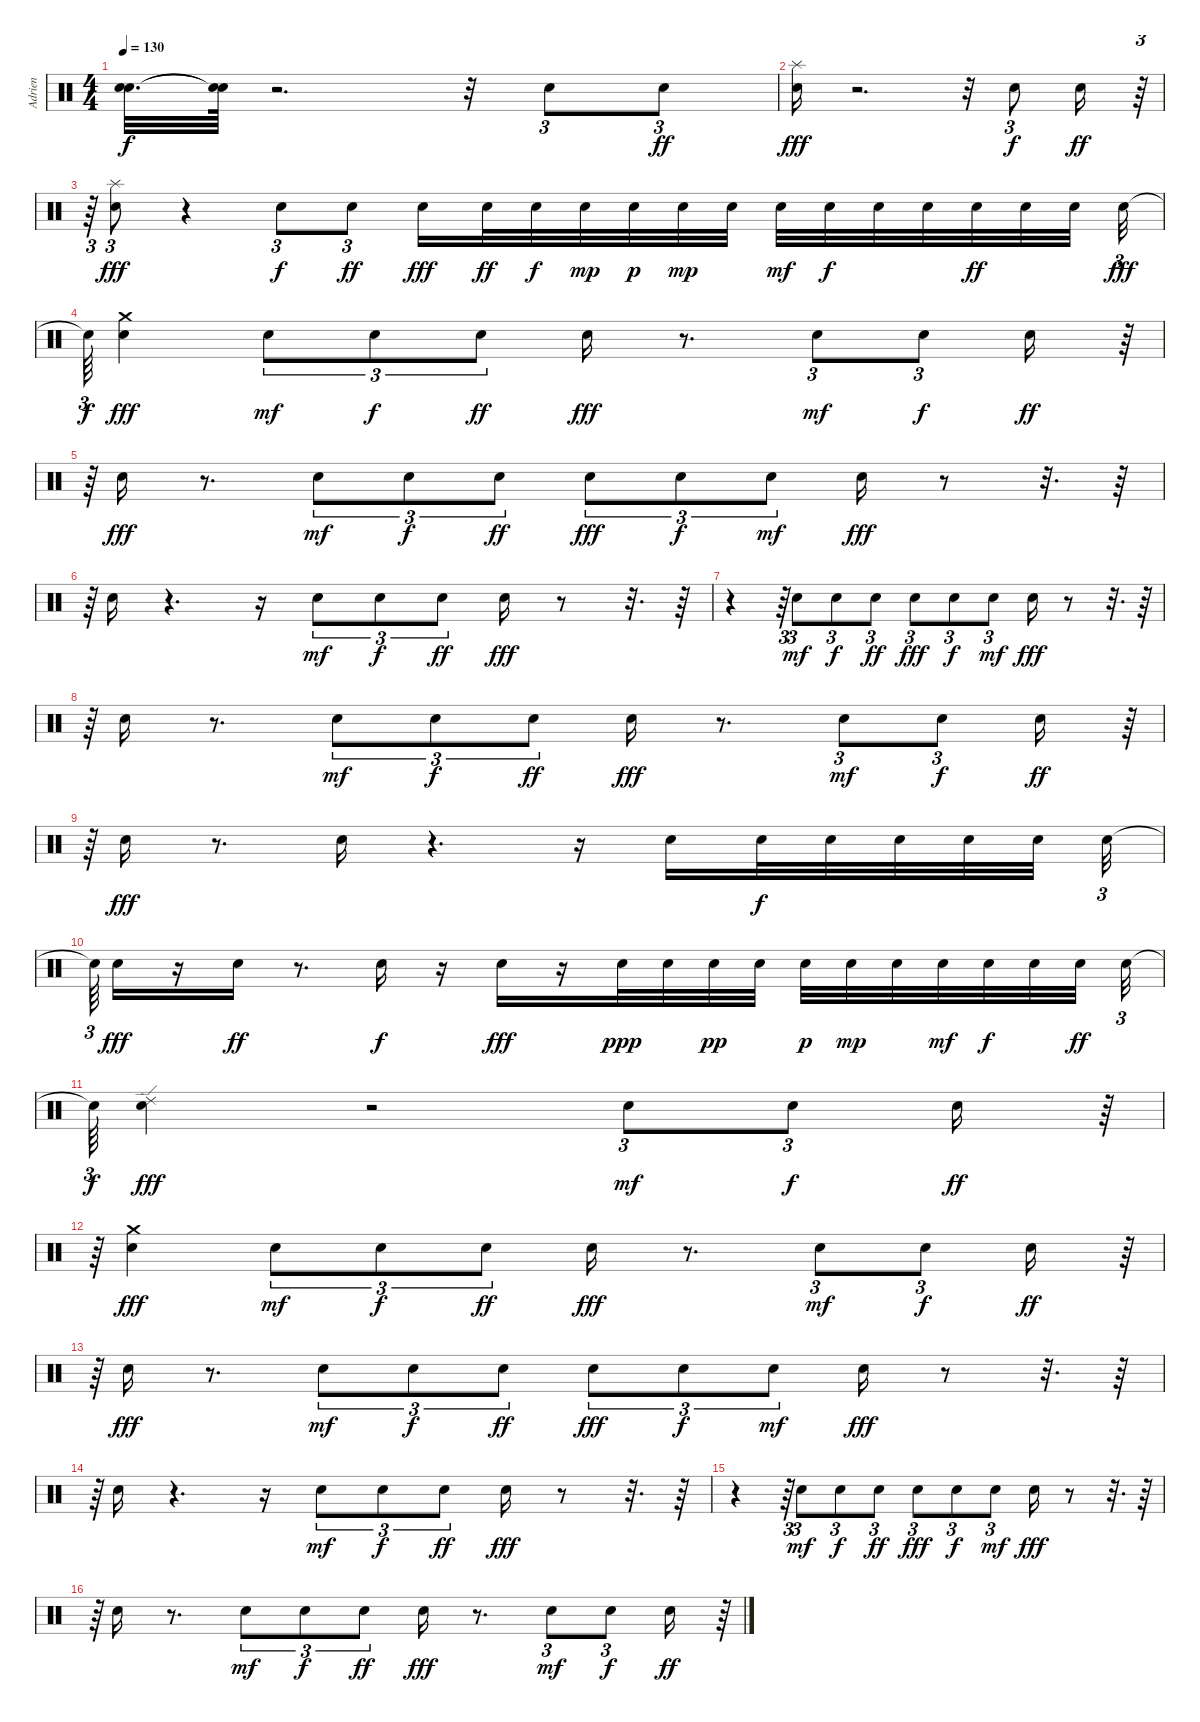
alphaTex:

\track ("Adrien" "Adrien") {instrument percussion}
\staff {score}
\articulation defaults
\ts (4 4)
\tempo 130
\clef neutral
\ks c
("Snare (hit)"{t} "Snare (hit)"{t}).32{d dy f} ("Snare (hit)"{t} "Snare (hit)"{t}).64 r.2{d} r.32 "Snare (hit) 2".8{tu (3 2)} "Snare (hit) 2".8{tu (3 2) dy ff} |
("Snare (hit) 2" "Splash (hit)").16{dy fff} r.2{d} r.32 "Snare (hit) 2".8{tu (3 2) dy f} "Snare (hit) 2".16{dy ff} r.64{tu (3 2)} |
r.64{tu (3 2)} ("Snare (hit) 2" "Splash (hit)").8{tu (3 2) dy fff} r.4 "Snare (hit) 2".8{tu (3 2) dy f} "Snare (hit) 2".8{tu (3 2) dy ff} "Snare (hit) 2".16{dy fff} "Snare (hit) 2".32{dy ff} "Snare (hit) 2".32{dy f} "Snare (hit) 2".32{dy mp} "Snare (hit) 2".32{dy p} "Snare (hit) 2".32{dy mp} "Snare (hit) 2".32 "Snare (hit) 2".32{dy mf} "Snare (hit) 2".32{dy f} "Snare (hit) 2".32 "Snare (hit) 2".32 "Snare (hit) 2".32{dy ff} "Snare (hit) 2".32 "Snare (hit) 2".32{beam splitsecondary} "Snare (hit) 2".32{tu (3 2) dy fff} |
"Snare (hit)"{t}.64{tu (3 2) dy f} ("Snare (hit) 2" "Crash medium (hit)").4{dy fff} "Snare (hit) 2".8{tu (3 2) dy mf} "Snare (hit) 2".8{tu (3 2) dy f} "Snare (hit) 2".8{tu (3 2) dy ff} "Snare (hit) 2".16{dy fff} r.8{d} "Snare (hit) 2".8{tu (3 2) dy mf} "Snare (hit) 2".8{tu (3 2) dy f} "Snare (hit) 2".16{dy ff} r.64{tu (3 2)} |
r.64{tu (3 2)} "Snare (hit) 2".16{dy fff} r.8{d} "Snare (hit) 2".8{tu (3 2) dy mf} "Snare (hit) 2".8{tu (3 2) dy f} "Snare (hit) 2".8{tu (3 2) dy ff} "Snare (hit) 2".8{tu (3 2) dy fff} "Snare (hit) 2".8{tu (3 2) dy f} "Snare (hit) 2".8{tu (3 2) dy mf} "Snare (hit) 2".16{dy fff} r.8 r.32{d} r.64 |
r.64{tu (3 2)} "Snare (hit) 2".16 r.4{d} r.16 "Snare (hit) 2".8{tu (3 2) dy mf} "Snare (hit) 2".8{tu (3 2) dy f} "Snare (hit) 2".8{tu (3 2) dy ff} "Snare (hit) 2".16{dy fff} r.8 r.32{d} r.64 |
r.4 r.64{tu (3 2)} "Snare (hit) 2".8{tu (3 2) dy mf} "Snare (hit) 2".8{tu (3 2) dy f} "Snare (hit) 2".8{tu (3 2) dy ff} "Snare (hit) 2".8{tu (3 2) dy fff} "Snare (hit) 2".8{tu (3 2) dy f} "Snare (hit) 2".8{tu (3 2) dy mf} "Snare (hit) 2".16{dy fff} r.8 r.32{d} r.64 |
r.64{tu (3 2)} "Snare (hit) 2".16 r.8{d} "Snare (hit) 2".8{tu (3 2) dy mf} "Snare (hit) 2".8{tu (3 2) dy f} "Snare (hit) 2".8{tu (3 2) dy ff} "Snare (hit) 2".16{dy fff} r.8{d} "Snare (hit) 2".8{tu (3 2) dy mf} "Snare (hit) 2".8{tu (3 2) dy f} "Snare (hit) 2".16{dy ff} r.64{tu (3 2)} |
r.64{tu (3 2)} "Snare (hit) 2".16{dy fff} r.8{d} "Snare (hit) 2".16 r.4{d} r.16 "Snare (hit) 2".16 "Snare (hit) 2".32{dy f} "Snare (hit) 2".32 "Snare (hit) 2".32 "Snare (hit) 2".32 "Snare (hit) 2".32{beam splitsecondary} "Snare (hit) 2".32{tu (3 2)} |
"Snare (hit)"{t}.64{tu (3 2)} "Snare (hit) 2".16{dy fff} r.16 "Snare (hit) 2".16{dy ff} r.8{d} "Snare (hit) 2".16{dy f} r.16 "Snare (hit) 2".16{dy fff} r.16 "Snare (hit) 2".32{dy ppp} "Snare (hit) 2".32 "Snare (hit) 2".32{dy pp} "Snare (hit) 2".32 "Snare (hit) 2".32{dy p} "Snare (hit) 2".32{dy mp} "Snare (hit) 2".32 "Snare (hit) 2".32{dy mf} "Snare (hit) 2".32{dy f} "Snare (hit) 2".32 "Snare (hit) 2".32{dy ff beam splitsecondary} "Snare (hit) 2".32{tu (3 2)} |
"Snare (hit)"{t}.64{tu (3 2) dy f} ("Snare (hit) 2" "Ride (edge) 2").4{dy fff} r.2 "Snare (hit) 2".8{tu (3 2) dy mf} "Snare (hit) 2".8{tu (3 2) dy f} "Snare (hit) 2".16{dy ff} r.64{tu (3 2)} |
r.64{tu (3 2)} ("Snare (hit) 2" "Crash medium (hit)").4{dy fff} "Snare (hit) 2".8{tu (3 2) dy mf} "Snare (hit) 2".8{tu (3 2) dy f} "Snare (hit) 2".8{tu (3 2) dy ff} "Snare (hit) 2".16{dy fff} r.8{d} "Snare (hit) 2".8{tu (3 2) dy mf} "Snare (hit) 2".8{tu (3 2) dy f} "Snare (hit) 2".16{dy ff} r.64{tu (3 2)} |
r.64{tu (3 2)} "Snare (hit) 2".16{dy fff} r.8{d} "Snare (hit) 2".8{tu (3 2) dy mf} "Snare (hit) 2".8{tu (3 2) dy f} "Snare (hit) 2".8{tu (3 2) dy ff} "Snare (hit) 2".8{tu (3 2) dy fff} "Snare (hit) 2".8{tu (3 2) dy f} "Snare (hit) 2".8{tu (3 2) dy mf} "Snare (hit) 2".16{dy fff} r.8 r.32{d} r.64 |
r.64{tu (3 2)} "Snare (hit) 2".16 r.4{d} r.16 "Snare (hit) 2".8{tu (3 2) dy mf} "Snare (hit) 2".8{tu (3 2) dy f} "Snare (hit) 2".8{tu (3 2) dy ff} "Snare (hit) 2".16{dy fff} r.8 r.32{d} r.64 |
r.4 r.64{tu (3 2)} "Snare (hit) 2".8{tu (3 2) dy mf} "Snare (hit) 2".8{tu (3 2) dy f} "Snare (hit) 2".8{tu (3 2) dy ff} "Snare (hit) 2".8{tu (3 2) dy fff} "Snare (hit) 2".8{tu (3 2) dy f} "Snare (hit) 2".8{tu (3 2) dy mf} "Snare (hit) 2".16{dy fff} r.8 r.32{d} r.64 |
r.64{tu (3 2)} "Snare (hit) 2".16 r.8{d} "Snare (hit) 2".8{tu (3 2) dy mf} "Snare (hit) 2".8{tu (3 2) dy f} "Snare (hit) 2".8{tu (3 2) dy ff} "Snare (hit) 2".16{dy fff} r.8{d} "Snare (hit) 2".8{tu (3 2) dy mf} "Snare (hit) 2".8{tu (3 2) dy f} "Snare (hit) 2".16{dy ff} r.64{tu (3 2)}
